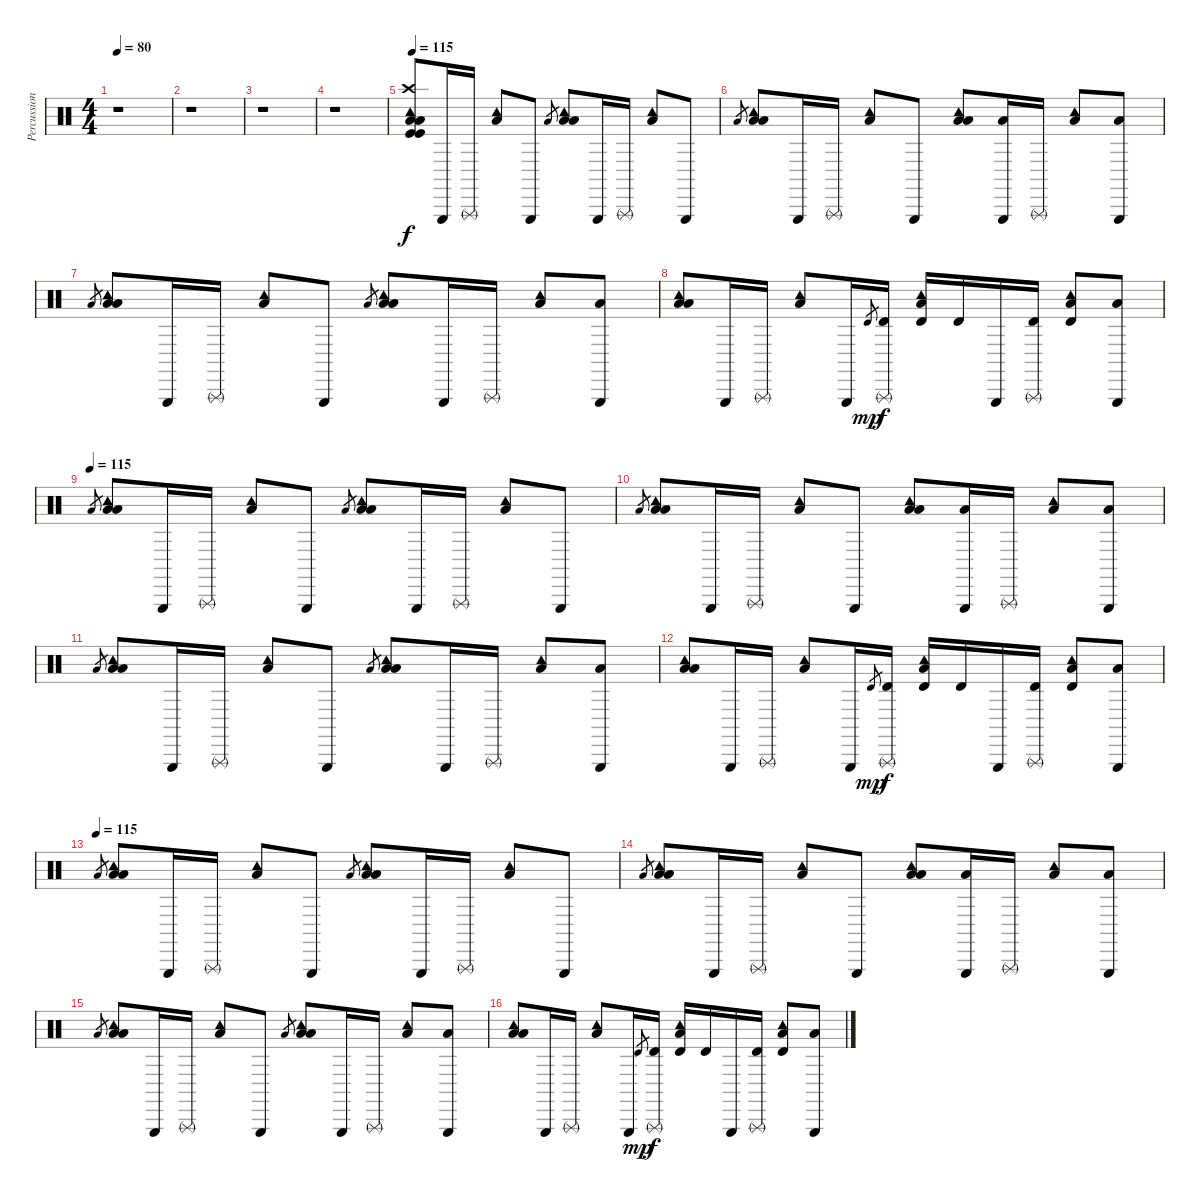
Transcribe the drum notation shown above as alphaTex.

\track ("Percussions" "Percussion") {instrument percussion}
\staff {score}
\articulation defaults
\ts (4 4)
\tempo 80
\clef neutral
\ks c
r.1{dy f} |
r.1 |
r.1 |
r.1 |
\tempo 115
("Kick (hit)" "Kick (hit)" "Tambourine (hit)" "Low Floor Tom (hit)" "Low Floor Tom (hit)" "Crash high (hit)").8 "Triangle (hit)".16 "Triangle (rnute)".16 ("Tambourine (hit)" "Low Floor Tom (hit)").8 "Triangle (hit)".8 "Low Floor Tom (hit)".8{gr} ("Tambourine (hit)" "Low Floor Tom (hit)" "Low Floor Tom (hit)").8 "Triangle (hit)".16 "Triangle (rnute)".16 ("Tambourine (hit)" "Low Floor Tom (hit)").8 "Triangle (hit)".8 |
"Low Floor Tom (hit)".8{gr} ("Tambourine (hit)" "Low Floor Tom (hit)" "Low Floor Tom (hit)").8 "Triangle (hit)".16 "Triangle (rnute)".16 ("Tambourine (hit)" "Low Floor Tom (hit)").8 "Triangle (hit)".8 ("Tambourine (hit)" "Low Floor Tom (hit)" "Low Floor Tom (hit)").8 ("Triangle (hit)" "Low Floor Tom (hit)").16 "Triangle (rnute)".16 ("Tambourine (hit)" "Low Floor Tom (hit)").8 ("Triangle (hit)" "Low Floor Tom (hit)").8 |
"Low Floor Tom (hit)".8{gr} ("Tambourine (hit)" "Low Floor Tom (hit)" "Low Floor Tom (hit)").8 "Triangle (hit)".16 "Triangle (rnute)".16 ("Tambourine (hit)" "Low Floor Tom (hit)").8 "Triangle (hit)".8 "Low Floor Tom (hit)".8{gr} ("Tambourine (hit)" "Low Floor Tom (hit)" "Low Floor Tom (hit)").8 "Triangle (hit)".16 "Triangle (rnute)".16 ("Tambourine (hit)" "Low Floor Tom (hit)").8 ("Triangle (hit)" "Low Floor Tom (hit)").8 |
("Tambourine (hit)" "Low Floor Tom (hit)" "Low Floor Tom (hit)").8 "Triangle (hit)".16 "Triangle (rnute)".16 ("Tambourine (hit)" "Low Floor Tom (hit)").8 "Triangle (hit)".16 "Timbale high (hit)".8{gr dy mp} ("Triangle (rnute)" "Timbale high (hit)").16{dy f} ("Low Floor Tom (hit)" "Tambourine (hit)" "Timbale high (hit)").16 "Timbale high (hit)".16 "Triangle (hit)".16 ("Triangle (rnute)" "Timbale high (hit)").16 ("Tambourine (hit)" "Low Floor Tom (hit)" "Timbale high (hit)").8 ("Triangle (hit)" "Low Floor Tom (hit)").8 |
\tempo (115)
"Low Floor Tom (hit)".8{gr} ("Tambourine (hit)" "Low Floor Tom (hit)" "Low Floor Tom (hit)").8 "Triangle (hit)".16 "Triangle (rnute)".16 ("Tambourine (hit)" "Low Floor Tom (hit)").8 "Triangle (hit)".8 "Low Floor Tom (hit)".8{gr} ("Tambourine (hit)" "Low Floor Tom (hit)" "Low Floor Tom (hit)").8 "Triangle (hit)".16 "Triangle (rnute)".16 ("Tambourine (hit)" "Low Floor Tom (hit)").8 "Triangle (hit)".8 |
"Low Floor Tom (hit)".8{gr} ("Tambourine (hit)" "Low Floor Tom (hit)" "Low Floor Tom (hit)").8 "Triangle (hit)".16 "Triangle (rnute)".16 ("Tambourine (hit)" "Low Floor Tom (hit)").8 "Triangle (hit)".8 ("Tambourine (hit)" "Low Floor Tom (hit)" "Low Floor Tom (hit)").8 ("Triangle (hit)" "Low Floor Tom (hit)").16 "Triangle (rnute)".16 ("Tambourine (hit)" "Low Floor Tom (hit)").8 ("Triangle (hit)" "Low Floor Tom (hit)").8 |
"Low Floor Tom (hit)".8{gr} ("Tambourine (hit)" "Low Floor Tom (hit)" "Low Floor Tom (hit)").8 "Triangle (hit)".16 "Triangle (rnute)".16 ("Tambourine (hit)" "Low Floor Tom (hit)").8 "Triangle (hit)".8 "Low Floor Tom (hit)".8{gr} ("Tambourine (hit)" "Low Floor Tom (hit)" "Low Floor Tom (hit)").8 "Triangle (hit)".16 "Triangle (rnute)".16 ("Tambourine (hit)" "Low Floor Tom (hit)").8 ("Triangle (hit)" "Low Floor Tom (hit)").8 |
("Tambourine (hit)" "Low Floor Tom (hit)" "Low Floor Tom (hit)").8 "Triangle (hit)".16 "Triangle (rnute)".16 ("Tambourine (hit)" "Low Floor Tom (hit)").8 "Triangle (hit)".16 "Timbale high (hit)".8{gr dy mp} ("Triangle (rnute)" "Timbale high (hit)").16{dy f} ("Low Floor Tom (hit)" "Tambourine (hit)" "Timbale high (hit)").16 "Timbale high (hit)".16 "Triangle (hit)".16 ("Triangle (rnute)" "Timbale high (hit)").16 ("Tambourine (hit)" "Low Floor Tom (hit)" "Timbale high (hit)").8 ("Triangle (hit)" "Low Floor Tom (hit)").8 |
\tempo (115)
"Low Floor Tom (hit)".8{gr} ("Tambourine (hit)" "Low Floor Tom (hit)" "Low Floor Tom (hit)").8 "Triangle (hit)".16 "Triangle (rnute)".16 ("Tambourine (hit)" "Low Floor Tom (hit)").8 "Triangle (hit)".8 "Low Floor Tom (hit)".8{gr} ("Tambourine (hit)" "Low Floor Tom (hit)" "Low Floor Tom (hit)").8 "Triangle (hit)".16 "Triangle (rnute)".16 ("Tambourine (hit)" "Low Floor Tom (hit)").8 "Triangle (hit)".8 |
"Low Floor Tom (hit)".8{gr} ("Tambourine (hit)" "Low Floor Tom (hit)" "Low Floor Tom (hit)").8 "Triangle (hit)".16 "Triangle (rnute)".16 ("Tambourine (hit)" "Low Floor Tom (hit)").8 "Triangle (hit)".8 ("Tambourine (hit)" "Low Floor Tom (hit)" "Low Floor Tom (hit)").8 ("Triangle (hit)" "Low Floor Tom (hit)").16 "Triangle (rnute)".16 ("Tambourine (hit)" "Low Floor Tom (hit)").8 ("Triangle (hit)" "Low Floor Tom (hit)").8 |
"Low Floor Tom (hit)".8{gr} ("Tambourine (hit)" "Low Floor Tom (hit)" "Low Floor Tom (hit)").8 "Triangle (hit)".16 "Triangle (rnute)".16 ("Tambourine (hit)" "Low Floor Tom (hit)").8 "Triangle (hit)".8 "Low Floor Tom (hit)".8{gr} ("Tambourine (hit)" "Low Floor Tom (hit)" "Low Floor Tom (hit)").8 "Triangle (hit)".16 "Triangle (rnute)".16 ("Tambourine (hit)" "Low Floor Tom (hit)").8 ("Triangle (hit)" "Low Floor Tom (hit)").8 |
("Tambourine (hit)" "Low Floor Tom (hit)" "Low Floor Tom (hit)").8 "Triangle (hit)".16 "Triangle (rnute)".16 ("Tambourine (hit)" "Low Floor Tom (hit)").8 "Triangle (hit)".16 "Timbale high (hit)".8{gr dy mp} ("Triangle (rnute)" "Timbale high (hit)").16{dy f} ("Low Floor Tom (hit)" "Tambourine (hit)" "Timbale high (hit)").16 "Timbale high (hit)".16 "Triangle (hit)".16 ("Triangle (rnute)" "Timbale high (hit)").16 ("Tambourine (hit)" "Low Floor Tom (hit)" "Timbale high (hit)").8 ("Triangle (hit)" "Low Floor Tom (hit)").8
